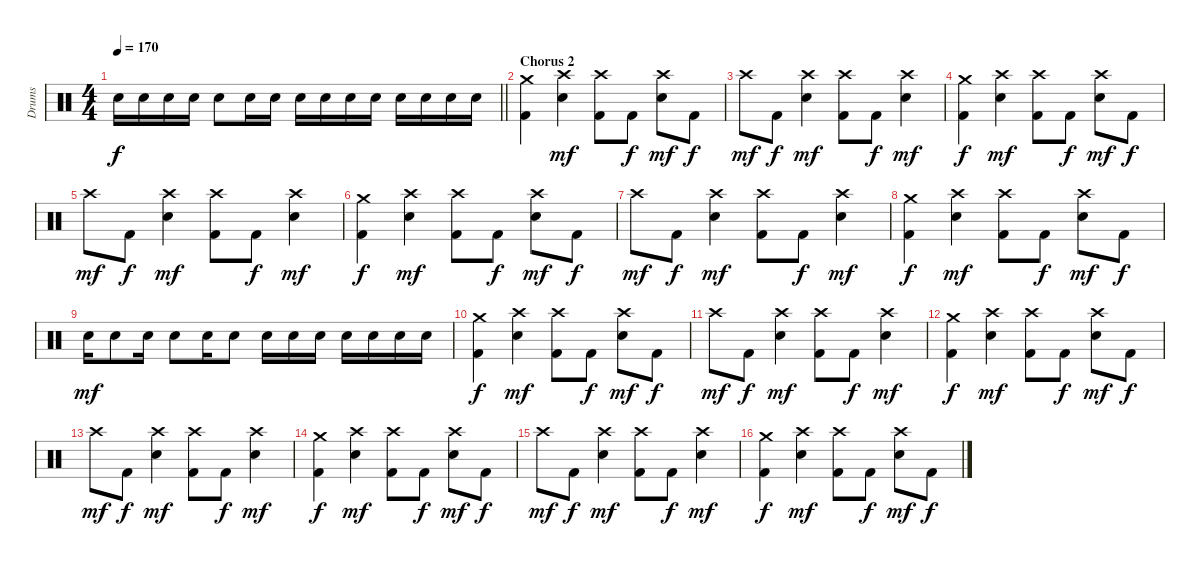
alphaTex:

\track ("Drums" "Drums") {instrument percussion}
\staff {score}
\articulation defaults
\ts (4 4)
\tempo 170
\clef neutral
\barLineRight lightlight
\ks c "Electric Snare (hit)".16{dy f} "Electric Snare (hit)".16 "Electric Snare (hit)".16 "Electric Snare (hit)".16 "Electric Snare (hit)".8 "Electric Snare (hit)".16 "Electric Snare (hit)".16 "Electric Snare (hit)".16 "Electric Snare (hit)".16 "Electric Snare (hit)".16 "Electric Snare (hit)".16 "Electric Snare (hit)".16 "Electric Snare (hit)".16 "Electric Snare (hit)".16 "Electric Snare (hit)".16
|
\section ("" "Chorus 2")
("Crash medium (hit)" "Kick (hit) 2").4 ("Crash high (hit)" "Electric Snare (hit)").4{dy mf} ("Crash high (hit)" "Kick (hit) 2").8 "Kick (hit) 2".8{dy f} ("Crash high (hit)" "Electric Snare (hit)").8{dy mf} "Kick (hit) 2".8{dy f} |
"Crash high (hit)".8{dy mf} "Kick (hit) 2".8{dy f} ("Crash high (hit)" "Electric Snare (hit)").4{dy mf} ("Crash high (hit)" "Kick (hit) 2").8 "Kick (hit) 2".8{dy f} ("Crash high (hit)" "Electric Snare (hit)").4{dy mf} |
("Crash medium (hit)" "Kick (hit) 2").4{dy f} ("Crash high (hit)" "Electric Snare (hit)").4{dy mf} ("Crash high (hit)" "Kick (hit) 2").8 "Kick (hit) 2".8{dy f} ("Crash high (hit)" "Electric Snare (hit)").8{dy mf} "Kick (hit) 2".8{dy f} |
"Crash high (hit)".8{dy mf} "Kick (hit) 2".8{dy f} ("Crash high (hit)" "Electric Snare (hit)").4{dy mf} ("Crash high (hit)" "Kick (hit) 2").8 "Kick (hit) 2".8{dy f} ("Crash high (hit)" "Electric Snare (hit)").4{dy mf} |
("Crash medium (hit)" "Kick (hit) 2").4{dy f} ("Crash high (hit)" "Electric Snare (hit)").4{dy mf} ("Crash high (hit)" "Kick (hit) 2").8 "Kick (hit) 2".8{dy f} ("Crash high (hit)" "Electric Snare (hit)").8{dy mf} "Kick (hit) 2".8{dy f} |
"Crash high (hit)".8{dy mf} "Kick (hit) 2".8{dy f} ("Crash high (hit)" "Electric Snare (hit)").4{dy mf} ("Crash high (hit)" "Kick (hit) 2").8 "Kick (hit) 2".8{dy f} ("Crash high (hit)" "Electric Snare (hit)").4{dy mf} |
("Crash medium (hit)" "Kick (hit) 2").4{dy f} ("Crash high (hit)" "Electric Snare (hit)").4{dy mf} ("Crash high (hit)" "Kick (hit) 2").8 "Kick (hit) 2".8{dy f} ("Crash high (hit)" "Electric Snare (hit)").8{dy mf} "Kick (hit) 2".8{dy f} |
"Electric Snare (hit)".16{dy mf} "Electric Snare (hit)".8 "Electric Snare (hit)".16 "Electric Snare (hit)".8 "Electric Snare (hit)".16 "Electric Snare (hit)".8 "Electric Snare (hit)".16 "Electric Snare (hit)".16 "Electric Snare (hit)".16 "Electric Snare (hit)".16 "Electric Snare (hit)".16 "Electric Snare (hit)".16 "Electric Snare (hit)".16 |
("Crash medium (hit)" "Kick (hit) 2").4{dy f} ("Crash high (hit)" "Electric Snare (hit)").4{dy mf} ("Crash high (hit)" "Kick (hit) 2").8 "Kick (hit) 2".8{dy f} ("Crash high (hit)" "Electric Snare (hit)").8{dy mf} "Kick (hit) 2".8{dy f} |
"Crash high (hit)".8{dy mf} "Kick (hit) 2".8{dy f} ("Crash high (hit)" "Electric Snare (hit)").4{dy mf} ("Crash high (hit)" "Kick (hit) 2").8 "Kick (hit) 2".8{dy f} ("Crash high (hit)" "Electric Snare (hit)").4{dy mf} |
("Crash medium (hit)" "Kick (hit) 2").4{dy f} ("Crash high (hit)" "Electric Snare (hit)").4{dy mf} ("Crash high (hit)" "Kick (hit) 2").8 "Kick (hit) 2".8{dy f} ("Crash high (hit)" "Electric Snare (hit)").8{dy mf} "Kick (hit) 2".8{dy f} |
"Crash high (hit)".8{dy mf} "Kick (hit) 2".8{dy f} ("Crash high (hit)" "Electric Snare (hit)").4{dy mf} ("Crash high (hit)" "Kick (hit) 2").8 "Kick (hit) 2".8{dy f} ("Crash high (hit)" "Electric Snare (hit)").4{dy mf} |
("Crash medium (hit)" "Kick (hit) 2").4{dy f} ("Crash high (hit)" "Electric Snare (hit)").4{dy mf} ("Crash high (hit)" "Kick (hit) 2").8 "Kick (hit) 2".8{dy f} ("Crash high (hit)" "Electric Snare (hit)").8{dy mf} "Kick (hit) 2".8{dy f} |
"Crash high (hit)".8{dy mf} "Kick (hit) 2".8{dy f} ("Crash high (hit)" "Electric Snare (hit)").4{dy mf} ("Crash high (hit)" "Kick (hit) 2").8 "Kick (hit) 2".8{dy f} ("Crash high (hit)" "Electric Snare (hit)").4{dy mf} |
("Crash medium (hit)" "Kick (hit) 2").4{dy f} ("Crash high (hit)" "Electric Snare (hit)").4{dy mf} ("Crash high (hit)" "Kick (hit) 2").8 "Kick (hit) 2".8{dy f} ("Crash high (hit)" "Electric Snare (hit)").8{dy mf} "Kick (hit) 2".8{dy f}
